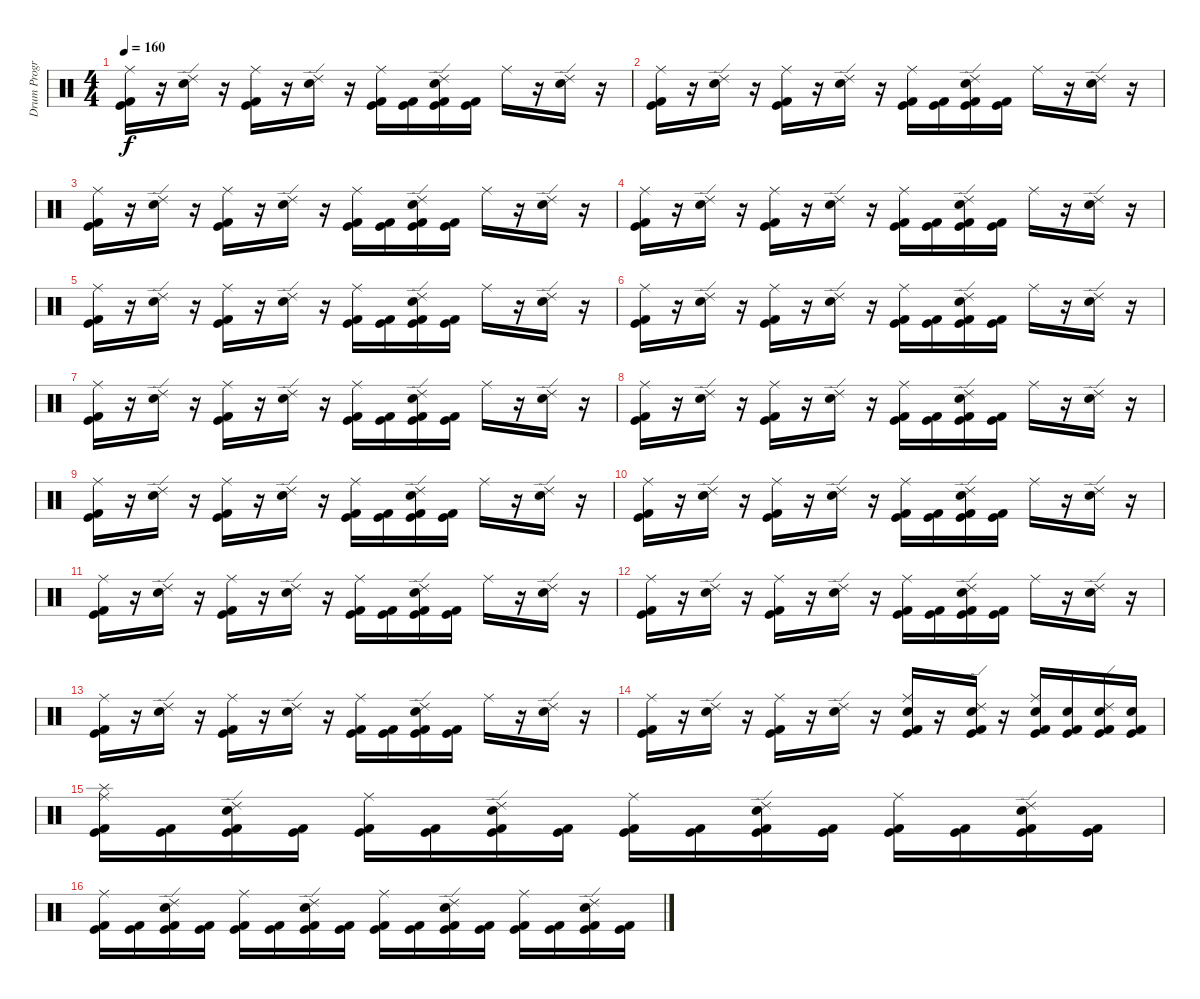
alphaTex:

\track ("Drum Program - BG" "Drum Progr") {instrument percussion}
\staff {score}
\articulation defaults
\ts (4 4)
\tempo 160
\clef neutral
\ks c
("Kick (hit) 2" "Kick (hit)" "Ride (middle)").16{dy f} r.16 ("Electric Snare (hit)" "Ride (edge) 2").16 r.16 ("Kick (hit)" "Kick (hit) 2" "Ride (middle)").16 r.16 ("Electric Snare (hit)" "Ride (edge) 2").16 r.16 ("Kick (hit)" "Kick (hit) 2" "Ride (middle)").16 ("Kick (hit)" "Kick (hit) 2").16 ("Kick (hit)" "Kick (hit) 2" "Electric Snare (hit)" "Ride (edge) 2").16 ("Kick (hit)" "Kick (hit) 2").16 "Ride (middle)".16 r.16 ("Electric Snare (hit)" "Ride (edge) 2").16 r.16 |
("Kick (hit) 2" "Kick (hit)" "Ride (middle)").16 r.16 ("Electric Snare (hit)" "Ride (edge) 2").16 r.16 ("Kick (hit)" "Kick (hit) 2" "Ride (middle)").16 r.16 ("Electric Snare (hit)" "Ride (edge) 2").16 r.16 ("Kick (hit)" "Kick (hit) 2" "Ride (middle)").16 ("Kick (hit)" "Kick (hit) 2").16 ("Kick (hit)" "Kick (hit) 2" "Electric Snare (hit)" "Ride (edge) 2").16 ("Kick (hit)" "Kick (hit) 2").16 "Ride (middle)".16 r.16 ("Electric Snare (hit)" "Ride (edge) 2").16 r.16 |
("Kick (hit) 2" "Kick (hit)" "Ride (middle)").16 r.16 ("Electric Snare (hit)" "Ride (edge) 2").16 r.16 ("Kick (hit)" "Kick (hit) 2" "Ride (middle)").16 r.16 ("Electric Snare (hit)" "Ride (edge) 2").16 r.16 ("Kick (hit)" "Kick (hit) 2" "Ride (middle)").16 ("Kick (hit)" "Kick (hit) 2").16 ("Kick (hit)" "Kick (hit) 2" "Electric Snare (hit)" "Ride (edge) 2").16 ("Kick (hit)" "Kick (hit) 2").16 "Ride (middle)".16 r.16 ("Electric Snare (hit)" "Ride (edge) 2").16 r.16 |
("Kick (hit) 2" "Kick (hit)" "Ride (middle)").16 r.16 ("Electric Snare (hit)" "Ride (edge) 2").16 r.16 ("Kick (hit)" "Kick (hit) 2" "Ride (middle)").16 r.16 ("Electric Snare (hit)" "Ride (edge) 2").16 r.16 ("Kick (hit)" "Kick (hit) 2" "Ride (middle)").16 ("Kick (hit)" "Kick (hit) 2").16 ("Kick (hit)" "Kick (hit) 2" "Electric Snare (hit)" "Ride (edge) 2").16 ("Kick (hit)" "Kick (hit) 2").16 "Ride (middle)".16 r.16 ("Electric Snare (hit)" "Ride (edge) 2").16 r.16 |
("Kick (hit) 2" "Kick (hit)" "Ride (middle)").16 r.16 ("Electric Snare (hit)" "Ride (edge) 2").16 r.16 ("Kick (hit)" "Kick (hit) 2" "Ride (middle)").16 r.16 ("Electric Snare (hit)" "Ride (edge) 2").16 r.16 ("Kick (hit)" "Kick (hit) 2" "Ride (middle)").16 ("Kick (hit)" "Kick (hit) 2").16 ("Kick (hit)" "Kick (hit) 2" "Electric Snare (hit)" "Ride (edge) 2").16 ("Kick (hit)" "Kick (hit) 2").16 "Ride (middle)".16 r.16 ("Electric Snare (hit)" "Ride (edge) 2").16 r.16 |
("Kick (hit) 2" "Kick (hit)" "Ride (middle)").16 r.16 ("Electric Snare (hit)" "Ride (edge) 2").16 r.16 ("Kick (hit)" "Kick (hit) 2" "Ride (middle)").16 r.16 ("Electric Snare (hit)" "Ride (edge) 2").16 r.16 ("Kick (hit)" "Kick (hit) 2" "Ride (middle)").16 ("Kick (hit)" "Kick (hit) 2").16 ("Kick (hit)" "Kick (hit) 2" "Electric Snare (hit)" "Ride (edge) 2").16 ("Kick (hit)" "Kick (hit) 2").16 "Ride (middle)".16 r.16 ("Electric Snare (hit)" "Ride (edge) 2").16 r.16 |
("Kick (hit) 2" "Kick (hit)" "Ride (middle)").16 r.16 ("Electric Snare (hit)" "Ride (edge) 2").16 r.16 ("Kick (hit)" "Kick (hit) 2" "Ride (middle)").16 r.16 ("Electric Snare (hit)" "Ride (edge) 2").16 r.16 ("Kick (hit)" "Kick (hit) 2" "Ride (middle)").16 ("Kick (hit)" "Kick (hit) 2").16 ("Kick (hit)" "Kick (hit) 2" "Electric Snare (hit)" "Ride (edge) 2").16 ("Kick (hit)" "Kick (hit) 2").16 "Ride (middle)".16 r.16 ("Electric Snare (hit)" "Ride (edge) 2").16 r.16 |
("Kick (hit) 2" "Kick (hit)" "Ride (middle)").16 r.16 ("Electric Snare (hit)" "Ride (edge) 2").16 r.16 ("Kick (hit)" "Kick (hit) 2" "Ride (middle)").16 r.16 ("Electric Snare (hit)" "Ride (edge) 2").16 r.16 ("Kick (hit)" "Kick (hit) 2" "Ride (middle)").16 ("Kick (hit)" "Kick (hit) 2").16 ("Kick (hit)" "Kick (hit) 2" "Electric Snare (hit)" "Ride (edge) 2").16 ("Kick (hit)" "Kick (hit) 2").16 "Ride (middle)".16 r.16 ("Electric Snare (hit)" "Ride (edge) 2").16 r.16 |
("Kick (hit) 2" "Kick (hit)" "Ride (middle)").16 r.16 ("Electric Snare (hit)" "Ride (edge) 2").16 r.16 ("Kick (hit)" "Kick (hit) 2" "Ride (middle)").16 r.16 ("Electric Snare (hit)" "Ride (edge) 2").16 r.16 ("Kick (hit)" "Kick (hit) 2" "Ride (middle)").16 ("Kick (hit)" "Kick (hit) 2").16 ("Kick (hit)" "Kick (hit) 2" "Electric Snare (hit)" "Ride (edge) 2").16 ("Kick (hit)" "Kick (hit) 2").16 "Ride (middle)".16 r.16 ("Electric Snare (hit)" "Ride (edge) 2").16 r.16 |
("Kick (hit) 2" "Kick (hit)" "Ride (middle)").16 r.16 ("Electric Snare (hit)" "Ride (edge) 2").16 r.16 ("Kick (hit)" "Kick (hit) 2" "Ride (middle)").16 r.16 ("Electric Snare (hit)" "Ride (edge) 2").16 r.16 ("Kick (hit)" "Kick (hit) 2" "Ride (middle)").16 ("Kick (hit)" "Kick (hit) 2").16 ("Kick (hit)" "Kick (hit) 2" "Electric Snare (hit)" "Ride (edge) 2").16 ("Kick (hit)" "Kick (hit) 2").16 "Ride (middle)".16 r.16 ("Electric Snare (hit)" "Ride (edge) 2").16 r.16 |
("Kick (hit) 2" "Kick (hit)" "Ride (middle)").16 r.16 ("Electric Snare (hit)" "Ride (edge) 2").16 r.16 ("Kick (hit)" "Kick (hit) 2" "Ride (middle)").16 r.16 ("Electric Snare (hit)" "Ride (edge) 2").16 r.16 ("Kick (hit)" "Kick (hit) 2" "Ride (middle)").16 ("Kick (hit)" "Kick (hit) 2").16 ("Kick (hit)" "Kick (hit) 2" "Electric Snare (hit)" "Ride (edge) 2").16 ("Kick (hit)" "Kick (hit) 2").16 "Ride (middle)".16 r.16 ("Electric Snare (hit)" "Ride (edge) 2").16 r.16 |
("Kick (hit) 2" "Kick (hit)" "Ride (middle)").16 r.16 ("Electric Snare (hit)" "Ride (edge) 2").16 r.16 ("Kick (hit)" "Kick (hit) 2" "Ride (middle)").16 r.16 ("Electric Snare (hit)" "Ride (edge) 2").16 r.16 ("Kick (hit)" "Kick (hit) 2" "Ride (middle)").16 ("Kick (hit)" "Kick (hit) 2").16 ("Kick (hit)" "Kick (hit) 2" "Electric Snare (hit)" "Ride (edge) 2").16 ("Kick (hit)" "Kick (hit) 2").16 "Ride (middle)".16 r.16 ("Electric Snare (hit)" "Ride (edge) 2").16 r.16 |
("Kick (hit) 2" "Kick (hit)" "Ride (middle)").16 r.16 ("Electric Snare (hit)" "Ride (edge) 2").16 r.16 ("Kick (hit)" "Kick (hit) 2" "Ride (middle)").16 r.16 ("Electric Snare (hit)" "Ride (edge) 2").16 r.16 ("Kick (hit)" "Kick (hit) 2" "Ride (middle)").16 ("Kick (hit)" "Kick (hit) 2").16 ("Kick (hit)" "Kick (hit) 2" "Electric Snare (hit)" "Ride (edge) 2").16 ("Kick (hit)" "Kick (hit) 2").16 "Ride (middle)".16 r.16 ("Electric Snare (hit)" "Ride (edge) 2").16 r.16 |
("Kick (hit)" "Kick (hit) 2" "Ride (middle)").16 r.16 ("Electric Snare (hit)" "Ride (edge) 2").16 r.16 ("Kick (hit)" "Kick (hit) 2" "Ride (middle)").16 r.16 ("Electric Snare (hit)" "Ride (edge) 2").16 r.16 ("Kick (hit)" "Kick (hit) 2" "Electric Snare (hit)" "Ride (middle)").16 r.16 ("Kick (hit)" "Kick (hit) 2" "Electric Snare (hit)" "Ride (edge) 2").16 r.16 ("Kick (hit)" "Kick (hit) 2" "Electric Snare (hit)" "Ride (middle)").16 ("Kick (hit)" "Kick (hit) 2" "Electric Snare (hit)").16 ("Kick (hit)" "Kick (hit) 2" "Electric Snare (hit)" "Ride (edge) 2").16 ("Kick (hit)" "Kick (hit) 2" "Electric Snare (hit)").16 |
("Kick (hit)" "Kick (hit) 2" "Splash (hit)" "Ride (middle)").16 ("Kick (hit)" "Kick (hit) 2").16 ("Kick (hit)" "Kick (hit) 2" "Electric Snare (hit)" "Ride (edge) 2").16 ("Kick (hit)" "Kick (hit) 2").16 ("Kick (hit)" "Kick (hit) 2" "Ride (middle)").16 ("Kick (hit)" "Kick (hit) 2").16 ("Kick (hit)" "Kick (hit) 2" "Electric Snare (hit)" "Ride (edge) 2").16 ("Kick (hit)" "Kick (hit) 2").16 ("Kick (hit)" "Kick (hit) 2" "Ride (middle)").16 ("Kick (hit)" "Kick (hit) 2").16 ("Kick (hit)" "Kick (hit) 2" "Electric Snare (hit)" "Ride (edge) 2").16 ("Kick (hit)" "Kick (hit) 2").16 ("Kick (hit)" "Kick (hit) 2" "Ride (middle)").16 ("Kick (hit)" "Kick (hit) 2").16 ("Kick (hit)" "Kick (hit) 2" "Electric Snare (hit)" "Ride (edge) 2").16 ("Kick (hit)" "Kick (hit) 2").16 |
("Kick (hit)" "Kick (hit) 2" "Ride (middle)").16 ("Kick (hit)" "Kick (hit) 2").16 ("Kick (hit)" "Kick (hit) 2" "Electric Snare (hit)" "Ride (edge) 2").16 ("Kick (hit)" "Kick (hit) 2").16 ("Kick (hit)" "Kick (hit) 2" "Ride (middle)").16 ("Kick (hit)" "Kick (hit) 2").16 ("Kick (hit)" "Kick (hit) 2" "Electric Snare (hit)" "Ride (edge) 2").16 ("Kick (hit)" "Kick (hit) 2").16 ("Kick (hit)" "Kick (hit) 2" "Ride (middle)").16 ("Kick (hit)" "Kick (hit) 2").16 ("Kick (hit)" "Kick (hit) 2" "Electric Snare (hit)" "Ride (edge) 2").16 ("Kick (hit)" "Kick (hit) 2").16 ("Kick (hit)" "Kick (hit) 2" "Ride (middle)").16 ("Kick (hit)" "Kick (hit) 2").16 ("Kick (hit)" "Kick (hit) 2" "Electric Snare (hit)" "Ride (edge) 2").16 ("Kick (hit)" "Kick (hit) 2").16
